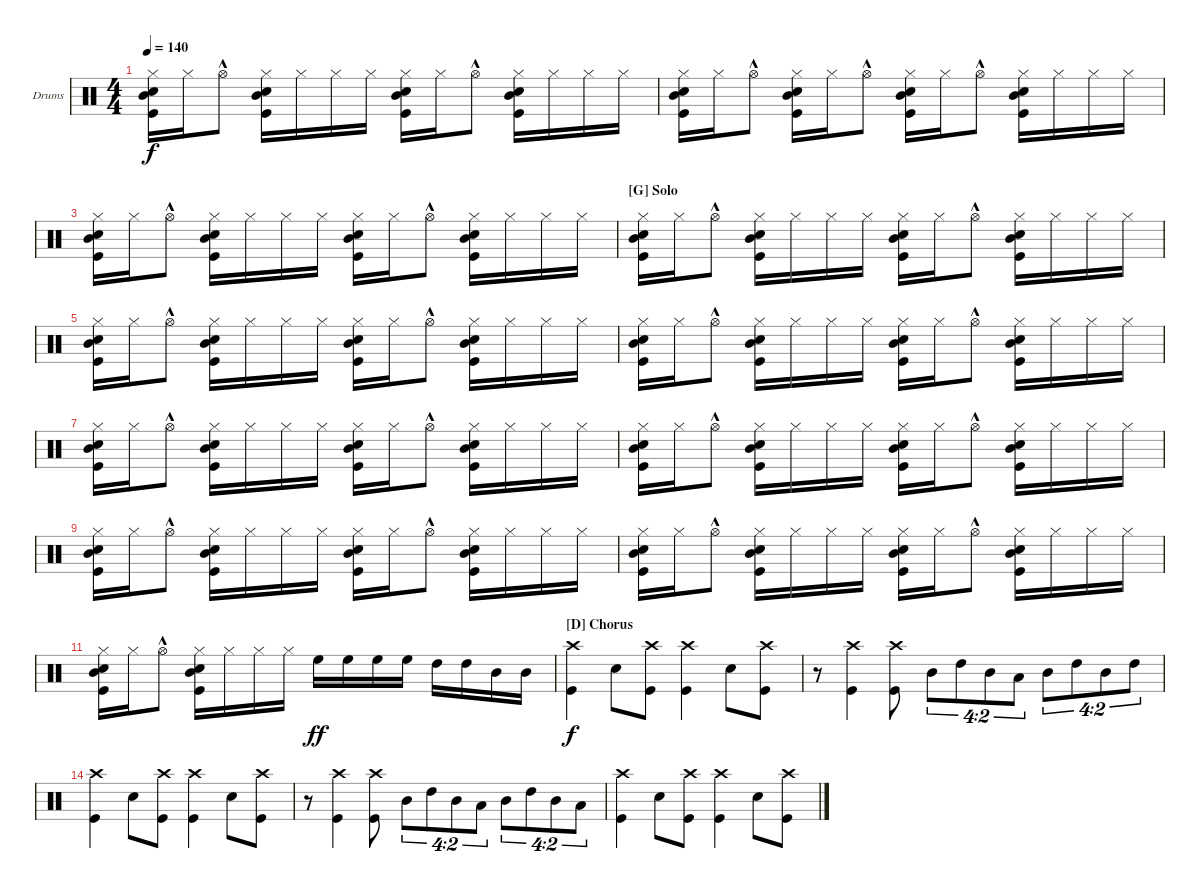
\bracketExtendMode nobrackets
\firstSystemTrackNameOrientation horizontal
\otherSystemsTrackNameOrientation horizontal
\defaultBarNumberDisplay FirstOfSystem
\track ("Drumkit" "Drums") {instrument percussion}
\staff {score}
\articulation defaults
\ts (4 4)
\tempo 140
\clef neutral
\ks c
("Hi-Hat (closed)" "Kick (hit)" "Snare (hit) 2" "Mid Tom (hit)").16{dy f} "Hi-Hat (closed)".16 "Hi-Hat (open)"{hac}.8 ("Hi-Hat (closed)" "Kick (hit)" "Snare (hit) 2" "Mid Tom (hit)").16 "Hi-Hat (closed)".16 "Hi-Hat (closed)".16 "Hi-Hat (closed)".16 ("Hi-Hat (closed)" "Kick (hit)" "Snare (hit) 2" "Mid Tom (hit)").16 "Hi-Hat (closed)".16 "Hi-Hat (open)"{hac}.8 ("Hi-Hat (closed)" "Kick (hit)" "Snare (hit) 2" "Mid Tom (hit)").16 "Hi-Hat (closed)".16 "Hi-Hat (closed)".16 "Hi-Hat (closed)".16 |
("Hi-Hat (closed)" "Kick (hit)" "Snare (hit) 2" "Mid Tom (hit)").16 "Hi-Hat (closed)".16 "Hi-Hat (open)"{hac}.8 ("Hi-Hat (closed)" "Kick (hit)" "Snare (hit) 2" "Mid Tom (hit)").16 "Hi-Hat (closed)".16 "Hi-Hat (open)"{hac}.8 ("Hi-Hat (closed)" "Kick (hit)" "Snare (hit) 2" "Mid Tom (hit)").16 "Hi-Hat (closed)".16 "Hi-Hat (open)"{hac}.8 ("Hi-Hat (closed)" "Kick (hit)" "Snare (hit) 2" "Mid Tom (hit)").16 "Hi-Hat (closed)".16 "Hi-Hat (closed)".16 "Hi-Hat (closed)".16 |
("Hi-Hat (closed)" "Kick (hit)" "Snare (hit) 2" "Mid Tom (hit)").16 "Hi-Hat (closed)".16 "Hi-Hat (open)"{hac}.8 ("Hi-Hat (closed)" "Kick (hit)" "Snare (hit) 2" "Mid Tom (hit)").16 "Hi-Hat (closed)".16 "Hi-Hat (closed)".16 "Hi-Hat (closed)".16 ("Hi-Hat (closed)" "Kick (hit)" "Snare (hit) 2" "Mid Tom (hit)").16 "Hi-Hat (closed)".16 "Hi-Hat (open)"{hac}.8 ("Hi-Hat (closed)" "Kick (hit)" "Snare (hit) 2" "Mid Tom (hit)").16 "Hi-Hat (closed)".16 "Hi-Hat (closed)".16 "Hi-Hat (closed)".16 |
\section ("G" "Solo")
("Hi-Hat (closed)" "Kick (hit)" "Snare (hit) 2" "Mid Tom (hit)").16 "Hi-Hat (closed)".16 "Hi-Hat (open)"{hac}.8 ("Hi-Hat (closed)" "Kick (hit)" "Snare (hit) 2" "Mid Tom (hit)").16 "Hi-Hat (closed)".16 "Hi-Hat (closed)".16 "Hi-Hat (closed)".16 ("Hi-Hat (closed)" "Kick (hit)" "Snare (hit) 2" "Mid Tom (hit)").16 "Hi-Hat (closed)".16 "Hi-Hat (open)"{hac}.8 ("Hi-Hat (closed)" "Kick (hit)" "Snare (hit) 2" "Mid Tom (hit)").16 "Hi-Hat (closed)".16 "Hi-Hat (closed)".16 "Hi-Hat (closed)".16 |
("Hi-Hat (closed)" "Kick (hit)" "Snare (hit) 2" "Mid Tom (hit)").16 "Hi-Hat (closed)".16 "Hi-Hat (open)"{hac}.8 ("Hi-Hat (closed)" "Kick (hit)" "Snare (hit) 2" "Mid Tom (hit)").16 "Hi-Hat (closed)".16 "Hi-Hat (closed)".16 "Hi-Hat (closed)".16 ("Hi-Hat (closed)" "Kick (hit)" "Snare (hit) 2" "Mid Tom (hit)").16 "Hi-Hat (closed)".16 "Hi-Hat (open)"{hac}.8 ("Hi-Hat (closed)" "Kick (hit)" "Snare (hit) 2" "Mid Tom (hit)").16 "Hi-Hat (closed)".16 "Hi-Hat (closed)".16 "Hi-Hat (closed)".16 |
("Hi-Hat (closed)" "Kick (hit)" "Snare (hit) 2" "Mid Tom (hit)").16 "Hi-Hat (closed)".16 "Hi-Hat (open)"{hac}.8 ("Hi-Hat (closed)" "Kick (hit)" "Snare (hit) 2" "Mid Tom (hit)").16 "Hi-Hat (closed)".16 "Hi-Hat (closed)".16 "Hi-Hat (closed)".16 ("Hi-Hat (closed)" "Kick (hit)" "Snare (hit) 2" "Mid Tom (hit)").16 "Hi-Hat (closed)".16 "Hi-Hat (open)"{hac}.8 ("Hi-Hat (closed)" "Kick (hit)" "Snare (hit) 2" "Mid Tom (hit)").16 "Hi-Hat (closed)".16 "Hi-Hat (closed)".16 "Hi-Hat (closed)".16 |
("Hi-Hat (closed)" "Kick (hit)" "Snare (hit) 2" "Mid Tom (hit)").16 "Hi-Hat (closed)".16 "Hi-Hat (open)"{hac}.8 ("Hi-Hat (closed)" "Kick (hit)" "Snare (hit) 2" "Mid Tom (hit)").16 "Hi-Hat (closed)".16 "Hi-Hat (closed)".16 "Hi-Hat (closed)".16 ("Hi-Hat (closed)" "Kick (hit)" "Snare (hit) 2" "Mid Tom (hit)").16 "Hi-Hat (closed)".16 "Hi-Hat (open)"{hac}.8 ("Hi-Hat (closed)" "Kick (hit)" "Snare (hit) 2" "Mid Tom (hit)").16 "Hi-Hat (closed)".16 "Hi-Hat (closed)".16 "Hi-Hat (closed)".16 |
("Hi-Hat (closed)" "Kick (hit)" "Snare (hit) 2" "Mid Tom (hit)").16 "Hi-Hat (closed)".16 "Hi-Hat (open)"{hac}.8 ("Hi-Hat (closed)" "Kick (hit)" "Snare (hit) 2" "Mid Tom (hit)").16 "Hi-Hat (closed)".16 "Hi-Hat (closed)".16 "Hi-Hat (closed)".16 ("Hi-Hat (closed)" "Kick (hit)" "Snare (hit) 2" "Mid Tom (hit)").16 "Hi-Hat (closed)".16 "Hi-Hat (open)"{hac}.8 ("Hi-Hat (closed)" "Kick (hit)" "Snare (hit) 2" "Mid Tom (hit)").16 "Hi-Hat (closed)".16 "Hi-Hat (closed)".16 "Hi-Hat (closed)".16 |
("Hi-Hat (closed)" "Kick (hit)" "Snare (hit) 2" "Mid Tom (hit)").16 "Hi-Hat (closed)".16 "Hi-Hat (open)"{hac}.8 ("Hi-Hat (closed)" "Kick (hit)" "Snare (hit) 2" "Mid Tom (hit)").16 "Hi-Hat (closed)".16 "Hi-Hat (closed)".16 "Hi-Hat (closed)".16 ("Hi-Hat (closed)" "Kick (hit)" "Snare (hit) 2" "Mid Tom (hit)").16 "Hi-Hat (closed)".16 "Hi-Hat (open)"{hac}.8 ("Hi-Hat (closed)" "Kick (hit)" "Snare (hit) 2" "Mid Tom (hit)").16 "Hi-Hat (closed)".16 "Hi-Hat (closed)".16 "Hi-Hat (closed)".16 |
("Hi-Hat (closed)" "Kick (hit)" "Snare (hit) 2" "Mid Tom (hit)").16 "Hi-Hat (closed)".16 "Hi-Hat (open)"{hac}.8 ("Hi-Hat (closed)" "Kick (hit)" "Snare (hit) 2" "Mid Tom (hit)").16 "Hi-Hat (closed)".16 "Hi-Hat (closed)".16 "Hi-Hat (closed)".16 ("Hi-Hat (closed)" "Kick (hit)" "Snare (hit) 2" "Mid Tom (hit)").16 "Hi-Hat (closed)".16 "Hi-Hat (open)"{hac}.8 ("Hi-Hat (closed)" "Kick (hit)" "Snare (hit) 2" "Mid Tom (hit)").16 "Hi-Hat (closed)".16 "Hi-Hat (closed)".16 "Hi-Hat (closed)".16 |
("Hi-Hat (closed)" "Kick (hit)" "Snare (hit) 2" "Mid Tom (hit)").16 "Hi-Hat (closed)".16 "Hi-Hat (open)"{hac}.8 ("Hi-Hat (closed)" "Kick (hit)" "Snare (hit) 2" "Mid Tom (hit)").16 "Hi-Hat (closed)".16 "Hi-Hat (closed)".16 "Hi-Hat (closed)".16 "High Floor Tom (hit)".16{dy ff} "High Floor Tom (hit)".16 "High Floor Tom (hit)".16 "High Floor Tom (hit)".16 "High Tom (hit)".16 "High Tom (hit)".16 "Mid Tom (hit)".16 "Mid Tom (hit)".16 |
\section ("D" "Chorus")
("Kick (hit)" "Crash high (hit)").4{dy f} "Snare (hit) 2".8 ("Crash high (hit)" "Kick (hit)").8 ("Crash high (hit)" "Kick (hit)").4 "Snare (hit) 2".8 ("Crash high (hit)" "Kick (hit)").8 |
r.8 ("Crash high (hit)" "Kick (hit)").4 ("Crash high (hit)" "Kick (hit)").8 "Mid Tom (hit)".8{tu (4 2)} "High Tom (hit)".8{tu (4 2)} "Mid Tom (hit)".8{tu (4 2)} "Low Tom (hit)".8{tu (4 2)} "Mid Tom (hit)".8{tu (4 2)} "High Tom (hit)".8{tu (4 2)} "Mid Tom (hit)".8{tu (4 2)} "High Tom (hit)".8{tu (4 2)} |
("Kick (hit)" "Crash high (hit)").4 "Snare (hit) 2".8 ("Crash high (hit)" "Kick (hit)").8 ("Crash high (hit)" "Kick (hit)").4 "Snare (hit) 2".8 ("Crash high (hit)" "Kick (hit)").8 |
r.8 ("Crash high (hit)" "Kick (hit)").4 ("Crash high (hit)" "Kick (hit)").8 "Mid Tom (hit)".8{tu (4 2)} "High Tom (hit)".8{tu (4 2)} "Mid Tom (hit)".8{tu (4 2)} "Low Tom (hit)".8{tu (4 2)} "Mid Tom (hit)".8{tu (4 2)} "High Tom (hit)".8{tu (4 2)} "Mid Tom (hit)".8{tu (4 2)} "Low Tom (hit)".8{tu (4 2)} |
("Kick (hit)" "Crash high (hit)").4 "Snare (hit) 2".8 ("Crash high (hit)" "Kick (hit)").8 ("Crash high (hit)" "Kick (hit)").4 "Snare (hit) 2".8 ("Crash high (hit)" "Kick (hit)").8
